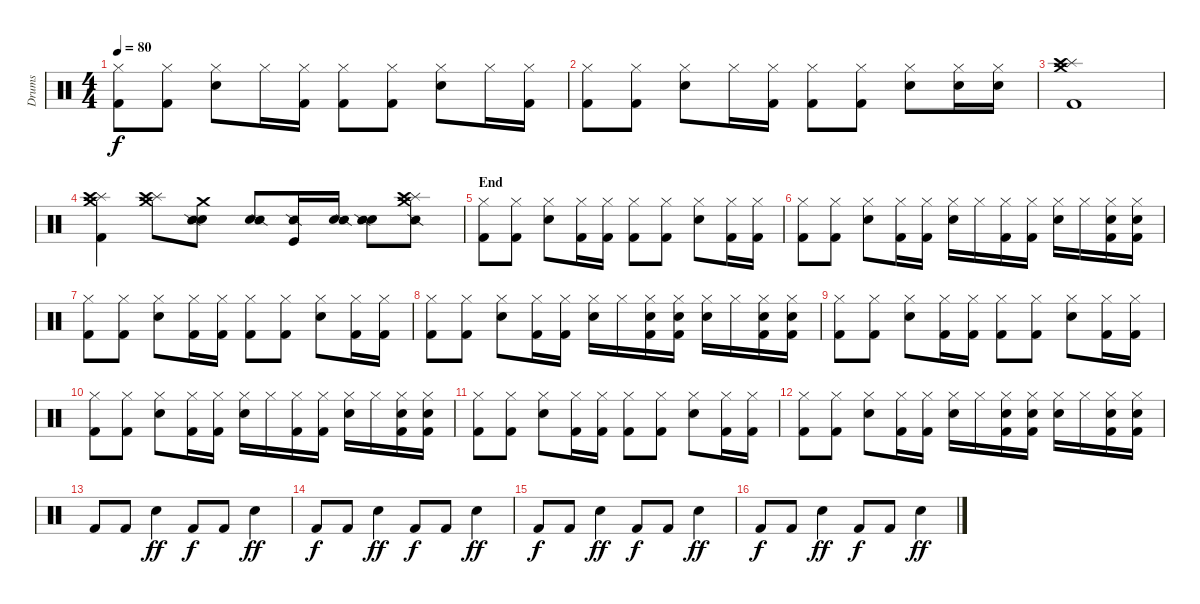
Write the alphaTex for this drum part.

\track ("Drums" "Drums") {instrument percussion}
\staff {score}
\articulation defaults
\ts (4 4)
\tempo 80
\clef neutral
\ks c
("Hi-Hat (closed)" "Kick (hit) 2").8{dy f} ("Hi-Hat (closed)" "Kick (hit) 2").8 ("Hi-Hat (closed)" "Snare (hit) 2").8 "Hi-Hat (closed)".16 ("Hi-Hat (closed)" "Kick (hit) 2").16 ("Hi-Hat (closed)" "Kick (hit) 2").8 ("Hi-Hat (closed)" "Kick (hit) 2").8 ("Hi-Hat (closed)" "Snare (hit) 2").8 "Hi-Hat (closed)".16 ("Hi-Hat (closed)" "Kick (hit) 2").16 |
("Hi-Hat (closed)" "Kick (hit) 2").8 ("Hi-Hat (closed)" "Kick (hit) 2").8 ("Hi-Hat (closed)" "Snare (hit) 2").8 "Hi-Hat (closed)".16 ("Hi-Hat (closed)" "Kick (hit) 2").16 ("Hi-Hat (closed)" "Kick (hit) 2").8 ("Hi-Hat (closed)" "Kick (hit) 2").8 ("Hi-Hat (closed)" "Snare (hit) 2").8 ("Hi-Hat (closed)" "Snare (hit) 2").16 ("Hi-Hat (closed)" "Snare (hit) 2").16 |
("Crash medium (hit)" "Splash (hit)" "Crash high (hit)" "Kick (hit) 2").1 |
("Crash medium (hit)" "Splash (hit)" "Crash high (hit)" "Kick (hit) 2").4 ("Crash medium (hit)" "Splash (hit)" "Crash high (hit)").8 ("Crash medium (hit)" "Metronome (bell)" "Snare (side stick) 2").8 ("Metronome (bell)" "Snare (side stick) 2").8 ("Kick (hit)" "Snare (side stick) 2").16 ("Metronome (bell)" "Snare (side stick) 2").16 ("Metronome (bell)" "Snare (side stick) 2").8 ("Crash medium (hit)" "Splash (hit)" "Crash high (hit)" "Snare (side stick) 2").8 |
\section ("" "End")
("Hi-Hat (closed)" "Kick (hit) 2").8 ("Hi-Hat (closed)" "Kick (hit) 2").8 ("Hi-Hat (closed)" "Snare (hit) 2").8 ("Hi-Hat (closed)" "Kick (hit) 2").16 ("Hi-Hat (closed)" "Kick (hit) 2").16 ("Hi-Hat (closed)" "Kick (hit) 2").8 ("Hi-Hat (closed)" "Kick (hit) 2").8 ("Hi-Hat (closed)" "Snare (hit) 2").8 ("Hi-Hat (closed)" "Kick (hit) 2").16 ("Hi-Hat (closed)" "Kick (hit) 2").16 |
("Hi-Hat (closed)" "Kick (hit) 2").8 ("Hi-Hat (closed)" "Kick (hit) 2").8 ("Hi-Hat (closed)" "Snare (hit) 2").8 ("Hi-Hat (closed)" "Kick (hit) 2").16 ("Hi-Hat (closed)" "Kick (hit) 2").16 ("Hi-Hat (closed)" "Snare (hit) 2").16 "Hi-Hat (closed)".16 ("Hi-Hat (closed)" "Kick (hit) 2").16 ("Hi-Hat (closed)" "Kick (hit) 2").16 ("Hi-Hat (closed)" "Snare (hit) 2").16 "Hi-Hat (closed)".16 ("Hi-Hat (closed)" "Snare (hit) 2" "Kick (hit) 2").16 ("Hi-Hat (closed)" "Snare (hit) 2" "Kick (hit) 2").16 |
("Hi-Hat (closed)" "Kick (hit) 2").8 ("Hi-Hat (closed)" "Kick (hit) 2").8 ("Hi-Hat (closed)" "Snare (hit) 2").8 ("Hi-Hat (closed)" "Kick (hit) 2").16 ("Hi-Hat (closed)" "Kick (hit) 2").16 ("Hi-Hat (closed)" "Kick (hit) 2").8 ("Hi-Hat (closed)" "Kick (hit) 2").8 ("Hi-Hat (closed)" "Snare (hit) 2").8 ("Hi-Hat (closed)" "Kick (hit) 2").16 ("Hi-Hat (closed)" "Kick (hit) 2").16 |
("Hi-Hat (closed)" "Kick (hit) 2").8 ("Hi-Hat (closed)" "Kick (hit) 2").8 ("Hi-Hat (closed)" "Snare (hit) 2").8 ("Hi-Hat (closed)" "Kick (hit) 2").16 ("Hi-Hat (closed)" "Kick (hit) 2").16 ("Hi-Hat (closed)" "Snare (hit) 2").16 "Hi-Hat (closed)".16 ("Hi-Hat (closed)" "Snare (hit) 2" "Kick (hit) 2").16 ("Hi-Hat (closed)" "Snare (hit) 2" "Kick (hit) 2").16 ("Hi-Hat (closed)" "Snare (hit) 2").16 "Hi-Hat (closed)".16 ("Hi-Hat (closed)" "Snare (hit) 2" "Kick (hit) 2").16 ("Hi-Hat (closed)" "Snare (hit) 2" "Kick (hit) 2").16 |
("Hi-Hat (closed)" "Kick (hit) 2").8 ("Hi-Hat (closed)" "Kick (hit) 2").8 ("Hi-Hat (closed)" "Snare (hit) 2").8 ("Hi-Hat (closed)" "Kick (hit) 2").16 ("Hi-Hat (closed)" "Kick (hit) 2").16 ("Hi-Hat (closed)" "Kick (hit) 2").8 ("Hi-Hat (closed)" "Kick (hit) 2").8 ("Hi-Hat (closed)" "Snare (hit) 2").8 ("Hi-Hat (closed)" "Kick (hit) 2").16 ("Hi-Hat (closed)" "Kick (hit) 2").16 |
("Hi-Hat (closed)" "Kick (hit) 2").8 ("Hi-Hat (closed)" "Kick (hit) 2").8 ("Hi-Hat (closed)" "Snare (hit) 2").8 ("Hi-Hat (closed)" "Kick (hit) 2").16 ("Hi-Hat (closed)" "Kick (hit) 2").16 ("Hi-Hat (closed)" "Snare (hit) 2").16 "Hi-Hat (closed)".16 ("Hi-Hat (closed)" "Kick (hit) 2").16 ("Hi-Hat (closed)" "Kick (hit) 2").16 ("Hi-Hat (closed)" "Snare (hit) 2").16 "Hi-Hat (closed)".16 ("Hi-Hat (closed)" "Snare (hit) 2" "Kick (hit) 2").16 ("Hi-Hat (closed)" "Snare (hit) 2" "Kick (hit) 2").16 |
("Hi-Hat (closed)" "Kick (hit) 2").8 ("Hi-Hat (closed)" "Kick (hit) 2").8 ("Hi-Hat (closed)" "Snare (hit) 2").8 ("Hi-Hat (closed)" "Kick (hit) 2").16 ("Hi-Hat (closed)" "Kick (hit) 2").16 ("Hi-Hat (closed)" "Kick (hit) 2").8 ("Hi-Hat (closed)" "Kick (hit) 2").8 ("Hi-Hat (closed)" "Snare (hit) 2").8 ("Hi-Hat (closed)" "Kick (hit) 2").16 ("Hi-Hat (closed)" "Kick (hit) 2").16 |
("Hi-Hat (closed)" "Kick (hit) 2").8 ("Hi-Hat (closed)" "Kick (hit) 2").8 ("Hi-Hat (closed)" "Snare (hit) 2").8 ("Hi-Hat (closed)" "Kick (hit) 2").16 ("Hi-Hat (closed)" "Kick (hit) 2").16 ("Hi-Hat (closed)" "Snare (hit) 2").16 "Hi-Hat (closed)".16 ("Hi-Hat (closed)" "Snare (hit) 2" "Kick (hit) 2").16 ("Hi-Hat (closed)" "Snare (hit) 2" "Kick (hit) 2").16 ("Hi-Hat (closed)" "Snare (hit) 2").16 "Hi-Hat (closed)".16 ("Hi-Hat (closed)" "Snare (hit) 2" "Kick (hit) 2").16 ("Hi-Hat (closed)" "Snare (hit) 2" "Kick (hit) 2").16 |
"Kick (hit) 2".8{volume 4} "Kick (hit) 2".8 "Snare (hit) 2".4{dy ff} "Kick (hit) 2".8{dy f} "Kick (hit) 2".8 "Snare (hit) 2".4{dy ff} |
"Kick (hit) 2".8{dy f} "Kick (hit) 2".8 "Snare (hit) 2".4{dy ff} "Kick (hit) 2".8{dy f} "Kick (hit) 2".8 "Snare (hit) 2".4{dy ff volume 1} |
"Kick (hit) 2".8{dy f volume 4} "Kick (hit) 2".8 "Snare (hit) 2".4{dy ff} "Kick (hit) 2".8{dy f} "Kick (hit) 2".8 "Snare (hit) 2".4{dy ff} |
"Kick (hit) 2".8{dy f} "Kick (hit) 2".8 "Snare (hit) 2".4{dy ff} "Kick (hit) 2".8{dy f} "Kick (hit) 2".8 "Snare (hit) 2".4{dy ff volume 0}
